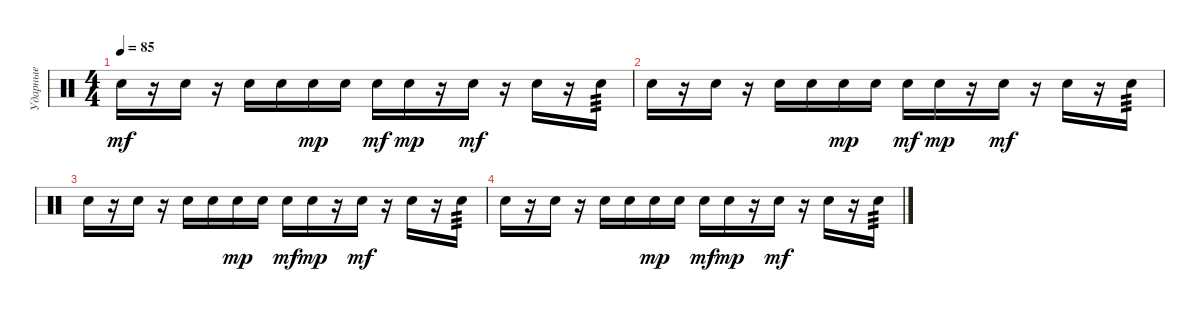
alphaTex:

\track ("Ударные" "Ударные") {instrument percussion}
\staff {score}
\articulation defaults
\ts (4 4)
\tempo 85
\clef neutral
\ks c "Hand Clap (hit)".16{dy mf}
r.16 "Hand Clap (hit)".16 r.16 "Hand Clap (hit)".16 "Hand Clap (hit)".16 "Hand Clap (hit)".16{dy mp} "Hand Clap (hit)".16 "Hand Clap (hit)".16{dy mf} "Hand Clap (hit)".16{dy mp} r.16 "Hand Clap (hit)".16{dy mf} r.16 "Hand Clap (hit)".16 r.16 "Hand Clap (hit)".16{tp 3} |
"Hand Clap (hit)".16 r.16 "Hand Clap (hit)".16 r.16 "Hand Clap (hit)".16 "Hand Clap (hit)".16 "Hand Clap (hit)".16{dy mp} "Hand Clap (hit)".16 "Hand Clap (hit)".16{dy mf} "Hand Clap (hit)".16{dy mp} r.16 "Hand Clap (hit)".16{dy mf} r.16 "Hand Clap (hit)".16 r.16 "Hand Clap (hit)".16{tp 3} |
"Hand Clap (hit)".16 r.16 "Hand Clap (hit)".16 r.16 "Hand Clap (hit)".16 "Hand Clap (hit)".16 "Hand Clap (hit)".16{dy mp} "Hand Clap (hit)".16 "Hand Clap (hit)".16{dy mf} "Hand Clap (hit)".16{dy mp} r.16 "Hand Clap (hit)".16{dy mf} r.16 "Hand Clap (hit)".16 r.16 "Hand Clap (hit)".16{tp 3} |
"Hand Clap (hit)".16 r.16 "Hand Clap (hit)".16 r.16 "Hand Clap (hit)".16 "Hand Clap (hit)".16 "Hand Clap (hit)".16{dy mp} "Hand Clap (hit)".16 "Hand Clap (hit)".16{dy mf} "Hand Clap (hit)".16{dy mp} r.16 "Hand Clap (hit)".16{dy mf} r.16 "Hand Clap (hit)".16 r.16 "Hand Clap (hit)".16{tp 3}
